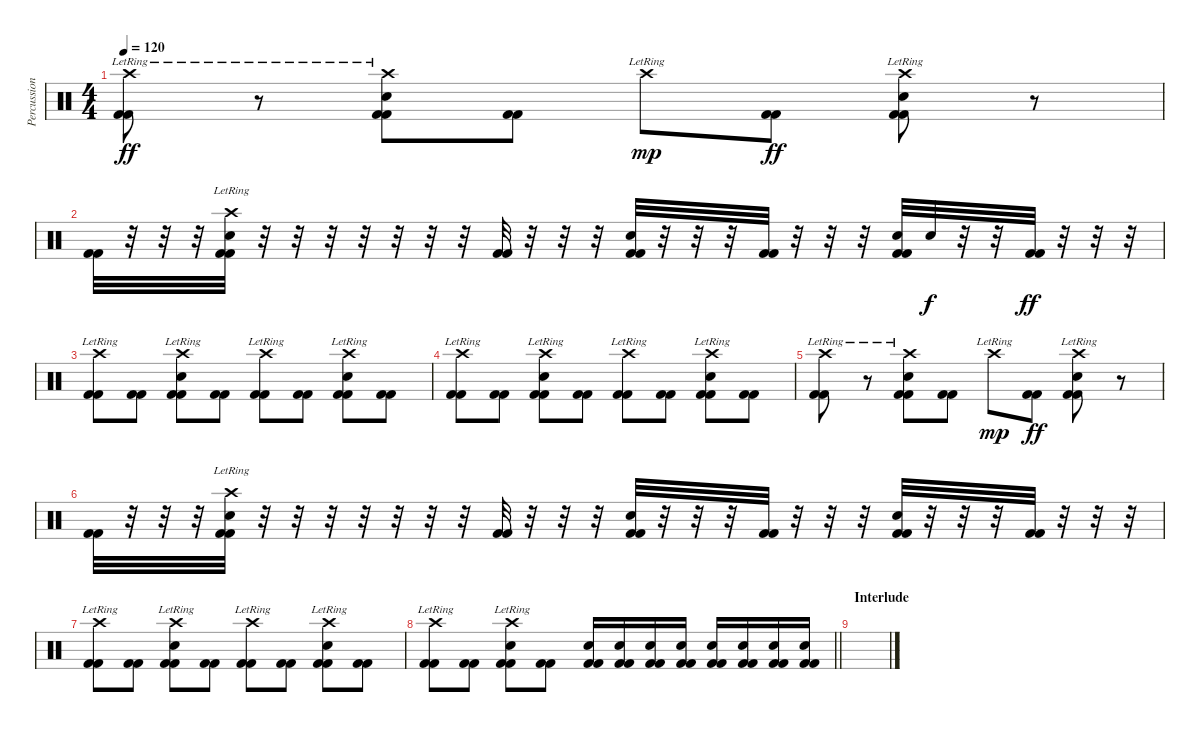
\track ("Percussion" "Percussion") {instrument percussion}
\staff {score}
\articulation defaults
\ts (4 4)
\tempo 120
\clef neutral
\ks c
("Crash high (hit)"{lr} "Kick (hit) 2" "Kick (hit) 2").8{dy ff} r.8 ("Crash high (hit)"{lr} "Snare (hit) 2" "Kick (hit) 2" "Kick (hit) 2").8 ("Kick (hit) 2" "Kick (hit) 2").8 "Crash high (hit)"{lr}.8{dy mp} ("Kick (hit) 2" "Kick (hit) 2").8{dy ff} ("Crash high (hit)"{lr} "Snare (hit) 2" "Kick (hit) 2" "Kick (hit) 2").8 r.8 |
("Kick (hit) 2" "Kick (hit) 2").32 r.32 r.32 r.32 ("Crash high (hit)"{lr} "Snare (hit) 2" "Kick (hit) 2" "Kick (hit) 2").32 r.32 r.32 r.32 r.32 r.32 r.32 r.32 ("Kick (hit) 2" "Kick (hit) 2").32 r.32 r.32 r.32 ("Snare (hit) 2" "Kick (hit) 2" "Kick (hit) 2").32 r.32 r.32 r.32 ("Kick (hit) 2" "Kick (hit) 2").32 r.32 r.32 r.32 ("Snare (hit) 2" "Kick (hit) 2" "Kick (hit) 2").32 "Snare (hit) 2".32{dy f} r.32 r.32 ("Kick (hit) 2" "Kick (hit) 2").32{dy ff} r.32 r.32 r.32 |
("Crash high (hit)"{lr} "Kick (hit) 2" "Kick (hit) 2").8 ("Kick (hit) 2" "Kick (hit) 2").8 ("Crash high (hit)"{lr} "Snare (hit) 2" "Kick (hit) 2" "Kick (hit) 2").8 ("Kick (hit) 2" "Kick (hit) 2").8 ("Crash high (hit)"{lr} "Kick (hit) 2" "Kick (hit) 2").8 ("Kick (hit) 2" "Kick (hit) 2").8 ("Crash high (hit)"{lr} "Snare (hit) 2" "Kick (hit) 2" "Kick (hit) 2").8 ("Kick (hit) 2" "Kick (hit) 2").8 |
("Crash high (hit)"{lr} "Kick (hit) 2" "Kick (hit) 2").8 ("Kick (hit) 2" "Kick (hit) 2").8 ("Crash high (hit)"{lr} "Snare (hit) 2" "Kick (hit) 2" "Kick (hit) 2").8 ("Kick (hit) 2" "Kick (hit) 2").8 ("Crash high (hit)"{lr} "Kick (hit) 2" "Kick (hit) 2").8 ("Kick (hit) 2" "Kick (hit) 2").8 ("Crash high (hit)"{lr} "Snare (hit) 2" "Kick (hit) 2" "Kick (hit) 2").8 ("Kick (hit) 2" "Kick (hit) 2").8 |
("Crash high (hit)"{lr} "Kick (hit) 2" "Kick (hit) 2").8 r.8 ("Crash high (hit)"{lr} "Snare (hit) 2" "Kick (hit) 2" "Kick (hit) 2").8 ("Kick (hit) 2" "Kick (hit) 2").8 "Crash high (hit)"{lr}.8{dy mp} ("Kick (hit) 2" "Kick (hit) 2").8{dy ff} ("Crash high (hit)"{lr} "Snare (hit) 2" "Kick (hit) 2" "Kick (hit) 2").8 r.8 |
("Kick (hit) 2" "Kick (hit) 2").32 r.32 r.32 r.32 ("Crash high (hit)"{lr} "Snare (hit) 2" "Kick (hit) 2" "Kick (hit) 2").32 r.32 r.32 r.32 r.32 r.32 r.32 r.32 ("Kick (hit) 2" "Kick (hit) 2").32 r.32 r.32 r.32 ("Snare (hit) 2" "Kick (hit) 2" "Kick (hit) 2").32 r.32 r.32 r.32 ("Kick (hit) 2" "Kick (hit) 2").32 r.32 r.32 r.32 ("Snare (hit) 2" "Kick (hit) 2" "Kick (hit) 2").32 r.32 r.32 r.32 ("Kick (hit) 2" "Kick (hit) 2").32 r.32 r.32 r.32 |
("Crash high (hit)"{lr} "Kick (hit) 2" "Kick (hit) 2").8 ("Kick (hit) 2" "Kick (hit) 2").8 ("Crash high (hit)"{lr} "Snare (hit) 2" "Kick (hit) 2" "Kick (hit) 2").8 ("Kick (hit) 2" "Kick (hit) 2").8 ("Crash high (hit)"{lr} "Kick (hit) 2" "Kick (hit) 2").8 ("Kick (hit) 2" "Kick (hit) 2").8 ("Crash high (hit)"{lr} "Snare (hit) 2" "Kick (hit) 2" "Kick (hit) 2").8 ("Kick (hit) 2" "Kick (hit) 2").8 |
\barLineRight lightlight
("Crash high (hit)"{lr} "Kick (hit) 2" "Kick (hit) 2").8 ("Kick (hit) 2" "Kick (hit) 2").8 ("Crash high (hit)"{lr} "Snare (hit) 2" "Kick (hit) 2" "Kick (hit) 2").8 ("Kick (hit) 2" "Kick (hit) 2").8 ("Snare (hit) 2" "Kick (hit) 2" "Kick (hit) 2").16 ("Snare (hit) 2" "Kick (hit) 2" "Kick (hit) 2").16 ("Snare (hit) 2" "Kick (hit) 2" "Kick (hit) 2").16 ("Snare (hit) 2" "Kick (hit) 2" "Kick (hit) 2").16 ("Snare (hit) 2" "Kick (hit) 2" "Kick (hit) 2").16 ("Snare (hit) 2" "Kick (hit) 2" "Kick (hit) 2").16 ("Snare (hit) 2" "Kick (hit) 2" "Kick (hit) 2").16 ("Snare (hit) 2" "Kick (hit) 2" "Kick (hit) 2").16 |
\section ("" "Interlude")
